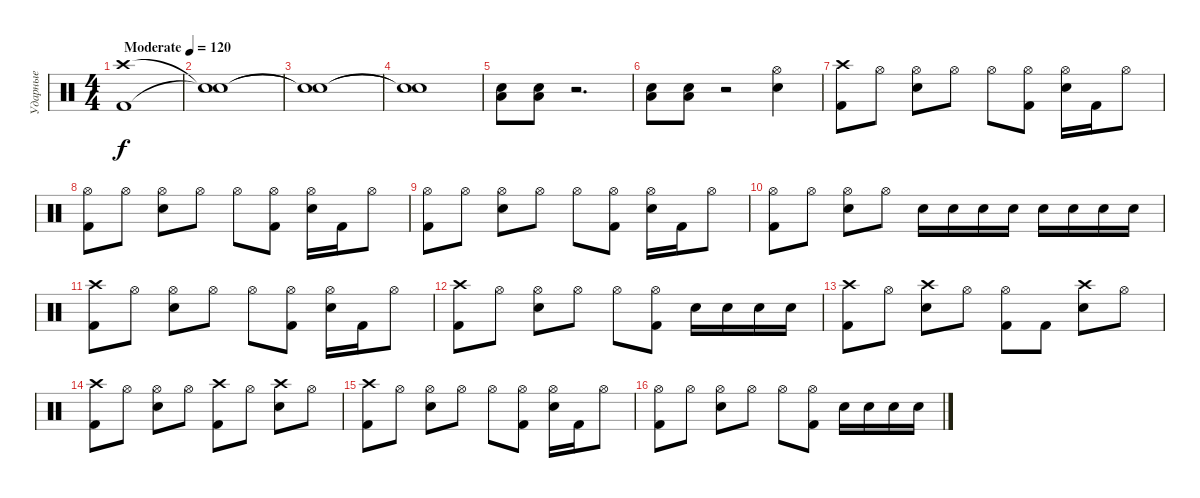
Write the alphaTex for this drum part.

\track ("Ударные" "Ударные") {instrument percussion}
\staff {score}
\articulation defaults
\ts (4 4)
\tempo (120 "Moderate")
\clef neutral
\ks c
("Crash high (hit)" "Kick (hit) 2").1{dy f} |
("Snare (hit)"{t} "Snare (hit)"{t}).1 |
("Snare (hit)"{t} "Snare (hit)"{t}).1 |
("Snare (hit)"{t} "Snare (hit)"{t}).1 |
("Low Tom (hit)" "Electric Snare (hit)").8 ("Low Tom (hit)" "Electric Snare (hit)").8 r.2{d} |
("Low Tom (hit)" "Electric Snare (hit)").8 ("Low Tom (hit)" "Electric Snare (hit)").8 r.2 ("Hi-Hat (open)" "Snare (hit) 2").4 |
("Crash high (hit)" "Kick (hit) 2").8 "Hi-Hat (open)".8 ("Snare (hit) 2" "Hi-Hat (open)").8 "Hi-Hat (open)".8 "Hi-Hat (open)".8 ("Kick (hit) 2" "Hi-Hat (open)").8 ("Snare (hit) 2" "Hi-Hat (open)").16 "Kick (hit) 2".16 "Hi-Hat (open)".8 |
("Hi-Hat (open)" "Kick (hit) 2").8 "Hi-Hat (open)".8 ("Snare (hit) 2" "Hi-Hat (open)").8 "Hi-Hat (open)".8 "Hi-Hat (open)".8 ("Kick (hit) 2" "Hi-Hat (open)").8 ("Snare (hit) 2" "Hi-Hat (open)").16 "Kick (hit) 2".16 "Hi-Hat (open)".8 |
("Hi-Hat (open)" "Kick (hit) 2").8 "Hi-Hat (open)".8 ("Snare (hit) 2" "Hi-Hat (open)").8 "Hi-Hat (open)".8 "Hi-Hat (open)".8 ("Kick (hit) 2" "Hi-Hat (open)").8 ("Snare (hit) 2" "Hi-Hat (open)").16 "Kick (hit) 2".16 "Hi-Hat (open)".8 |
("Hi-Hat (open)" "Kick (hit) 2").8 "Hi-Hat (open)".8 ("Snare (hit) 2" "Hi-Hat (open)").8 "Hi-Hat (open)".8 "Electric Snare (hit)".16 "Electric Snare (hit)".16 "Electric Snare (hit)".16 "Electric Snare (hit)".16 "Electric Snare (hit)".16 "Electric Snare (hit)".16 "Electric Snare (hit)".16 "Electric Snare (hit)".16 |
("Crash high (hit)" "Kick (hit) 2").8 "Hi-Hat (open)".8 ("Snare (hit) 2" "Hi-Hat (open)").8 "Hi-Hat (open)".8 "Hi-Hat (open)".8 ("Kick (hit) 2" "Hi-Hat (open)").8 ("Snare (hit) 2" "Hi-Hat (open)").16 "Kick (hit) 2".16 "Hi-Hat (open)".8 |
("Crash high (hit)" "Kick (hit) 2").8 "Hi-Hat (open)".8 ("Snare (hit) 2" "Hi-Hat (open)").8 "Hi-Hat (open)".8 "Hi-Hat (open)".8 ("Kick (hit) 2" "Hi-Hat (open)").8 "Electric Snare (hit)".16 "Electric Snare (hit)".16 "Electric Snare (hit)".16 "Electric Snare (hit)".16 |
("Crash high (hit)" "Kick (hit) 2").8 "Hi-Hat (open)".8 ("Snare (hit) 2" "Crash high (hit)").8 "Hi-Hat (open)".8 ("Kick (hit) 2" "Hi-Hat (open)").8 "Kick (hit) 2".8 ("Snare (hit) 2" "Crash high (hit)").8 "Hi-Hat (open)".8 |
("Crash high (hit)" "Kick (hit) 2").8 "Hi-Hat (open)".8 ("Snare (hit) 2" "Hi-Hat (open)").8 "Hi-Hat (open)".8 ("Kick (hit) 2" "Crash high (hit)").8 "Hi-Hat (open)".8 ("Snare (hit) 2" "Crash high (hit)").8 "Hi-Hat (open)".8 |
("Crash high (hit)" "Kick (hit) 2").8 "Hi-Hat (open)".8 ("Snare (hit) 2" "Hi-Hat (open)").8 "Hi-Hat (open)".8 "Hi-Hat (open)".8 ("Kick (hit) 2" "Hi-Hat (open)").8 ("Snare (hit) 2" "Hi-Hat (open)").16 "Kick (hit) 2".16 "Hi-Hat (open)".8 |
("Hi-Hat (open)" "Kick (hit) 2").8 "Hi-Hat (open)".8 ("Snare (hit) 2" "Hi-Hat (open)").8 "Hi-Hat (open)".8 "Hi-Hat (open)".8 ("Kick (hit) 2" "Hi-Hat (open)").8 "Electric Snare (hit)".16 "Electric Snare (hit)".16 "Electric Snare (hit)".16 "Electric Snare (hit)".16
